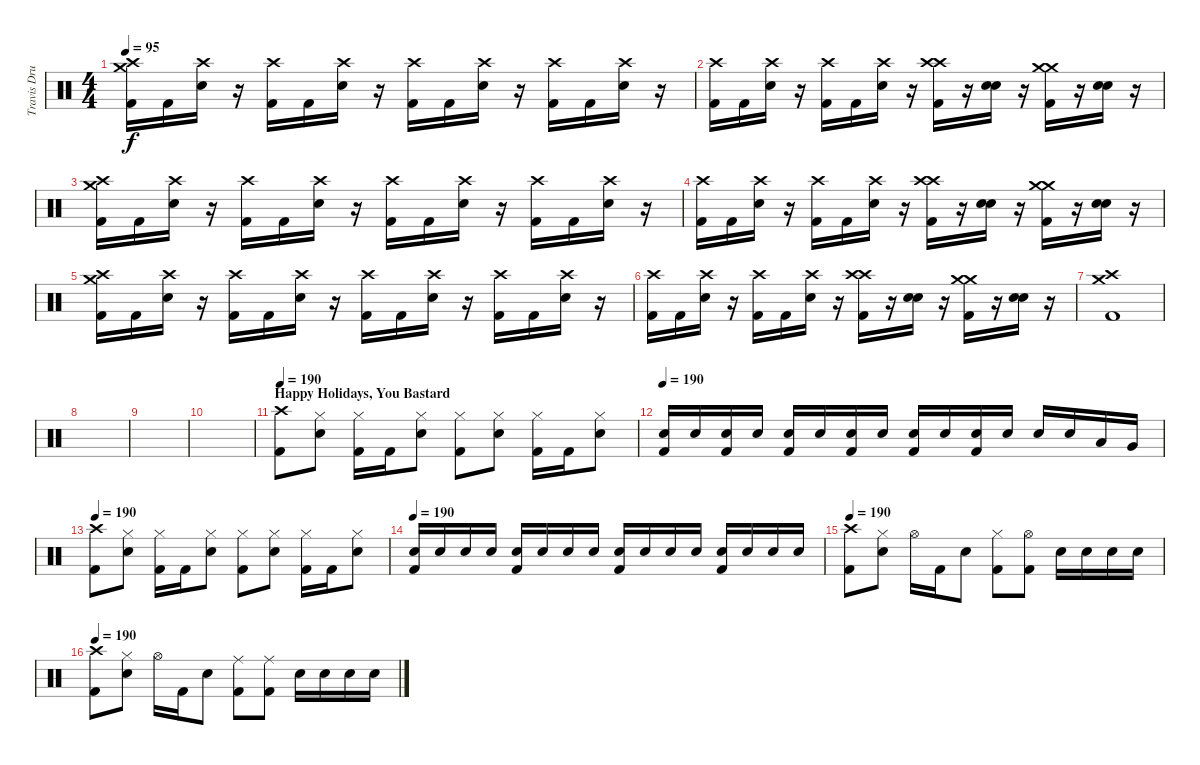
\track ("Travis Drums" "Travis Dru") {instrument percussion}
\staff {score}
\articulation defaults
\ts (4 4)
\tempo 95
\clef neutral
\ks c
("Crash medium (hit)" "Crash high (hit)" "Kick (hit) 2").16{dy f} "Kick (hit) 2".16 ("Crash high (hit)" "Snare (hit) 2").16 r.16 ("Crash high (hit)" "Kick (hit) 2").16 "Kick (hit) 2".16 ("Crash high (hit)" "Snare (hit) 2").16 r.16 ("Crash high (hit)" "Kick (hit) 2").16 "Kick (hit) 2".16 ("Crash high (hit)" "Snare (hit) 2").16 r.16 ("Crash high (hit)" "Kick (hit) 2").16 "Kick (hit) 2".16 ("Crash high (hit)" "Snare (hit) 2").16 r.16 |
("Crash high (hit)" "Kick (hit) 2").16 "Kick (hit) 2".16 ("Crash high (hit)" "Snare (hit) 2").16 r.16 ("Crash high (hit)" "Kick (hit) 2").16 "Kick (hit) 2".16 ("Crash high (hit)" "Snare (hit) 2").16 r.16 ("Crash high (hit)" "Crash high (hit)" "Kick (hit) 2").16 r.16 ("Snare (hit) 2" "Snare (hit) 2").16 r.16 ("Crash medium (hit)" "Crash medium (hit)" "Kick (hit) 2").16 r.16 ("Snare (hit) 2" "Snare (hit) 2").16 r.16 |
("Crash medium (hit)" "Crash high (hit)" "Kick (hit) 2").16 "Kick (hit) 2".16 ("Crash high (hit)" "Snare (hit) 2").16 r.16 ("Crash high (hit)" "Kick (hit) 2").16 "Kick (hit) 2".16 ("Crash high (hit)" "Snare (hit) 2").16 r.16 ("Crash high (hit)" "Kick (hit) 2").16 "Kick (hit) 2".16 ("Crash high (hit)" "Snare (hit) 2").16 r.16 ("Crash high (hit)" "Kick (hit) 2").16 "Kick (hit) 2".16 ("Crash high (hit)" "Snare (hit) 2").16 r.16 |
("Crash high (hit)" "Kick (hit) 2").16 "Kick (hit) 2".16 ("Crash high (hit)" "Snare (hit) 2").16 r.16 ("Crash high (hit)" "Kick (hit) 2").16 "Kick (hit) 2".16 ("Crash high (hit)" "Snare (hit) 2").16 r.16 ("Crash high (hit)" "Crash high (hit)" "Kick (hit) 2").16 r.16 ("Snare (hit) 2" "Snare (hit) 2").16 r.16 ("Crash medium (hit)" "Crash medium (hit)" "Kick (hit) 2").16 r.16 ("Snare (hit) 2" "Snare (hit) 2").16 r.16 |
("Crash medium (hit)" "Crash high (hit)" "Kick (hit) 2").16 "Kick (hit) 2".16 ("Crash high (hit)" "Snare (hit) 2").16 r.16 ("Crash high (hit)" "Kick (hit) 2").16 "Kick (hit) 2".16 ("Crash high (hit)" "Snare (hit) 2").16 r.16 ("Crash high (hit)" "Kick (hit) 2").16 "Kick (hit) 2".16 ("Crash high (hit)" "Snare (hit) 2").16 r.16 ("Crash high (hit)" "Kick (hit) 2").16 "Kick (hit) 2".16 ("Crash high (hit)" "Snare (hit) 2").16 r.16 |
("Crash high (hit)" "Kick (hit) 2").16 "Kick (hit) 2".16 ("Crash high (hit)" "Snare (hit) 2").16 r.16 ("Crash high (hit)" "Kick (hit) 2").16 "Kick (hit) 2".16 ("Crash high (hit)" "Snare (hit) 2").16 r.16 ("Crash high (hit)" "Crash high (hit)" "Kick (hit) 2").16 r.16 ("Snare (hit) 2" "Snare (hit) 2").16 r.16 ("Crash medium (hit)" "Crash medium (hit)" "Kick (hit) 2").16 r.16 ("Snare (hit) 2" "Snare (hit) 2").16 r.16 |
("Crash medium (hit)" "Crash high (hit)" "Kick (hit) 2").1 |
|
|
|
\section ("" "Happy Holidays, You Bastard")
\tempo 190
("Crash high (hit)" "Kick (hit) 2").8 ("Hi-Hat (closed)" "Electric Snare (hit)").8 ("Hi-Hat (closed)" "Kick (hit) 2").16 "Kick (hit) 2".16 ("Hi-Hat (closed)" "Electric Snare (hit)").8 ("Hi-Hat (closed)" "Kick (hit) 2").8 ("Hi-Hat (closed)" "Electric Snare (hit)").8 ("Hi-Hat (closed)" "Kick (hit) 2").16 "Kick (hit) 2".16 ("Hi-Hat (closed)" "Electric Snare (hit)").8 |
\tempo 190
("Electric Snare (hit)" "Kick (hit) 2").16 "Electric Snare (hit)".16 ("Electric Snare (hit)" "Kick (hit) 2").16 "Electric Snare (hit)".16 ("Electric Snare (hit)" "Kick (hit) 2").16 "Electric Snare (hit)".16 ("Electric Snare (hit)" "Kick (hit) 2").16 "Electric Snare (hit)".16 ("Electric Snare (hit)" "Kick (hit) 2").16 "Electric Snare (hit)".16 ("Electric Snare (hit)" "Kick (hit) 2").16 "Electric Snare (hit)".16 "Electric Snare (hit)".16 "Electric Snare (hit)".16 "Low Tom (hit)".16 "Very Low Tom (hit)".16 |
\tempo 190
("Crash high (hit)" "Kick (hit) 2").8 ("Hi-Hat (closed)" "Electric Snare (hit)").8 ("Hi-Hat (closed)" "Kick (hit) 2").16 "Kick (hit) 2".16 ("Hi-Hat (closed)" "Electric Snare (hit)").8 ("Hi-Hat (closed)" "Kick (hit) 2").8 ("Hi-Hat (closed)" "Electric Snare (hit)").8 ("Hi-Hat (closed)" "Kick (hit) 2").16 "Kick (hit) 2".16 ("Hi-Hat (closed)" "Electric Snare (hit)").8 |
\tempo 190
("Electric Snare (hit)" "Kick (hit) 2").16 "Electric Snare (hit)".16 "Electric Snare (hit)".16 "Electric Snare (hit)".16 ("Electric Snare (hit)" "Kick (hit) 2").16 "Electric Snare (hit)".16 "Electric Snare (hit)".16 "Electric Snare (hit)".16 ("Electric Snare (hit)" "Kick (hit) 2").16 "Electric Snare (hit)".16 "Electric Snare (hit)".16 "Electric Snare (hit)".16 ("Electric Snare (hit)" "Kick (hit) 2").16 "Electric Snare (hit)".16 "Electric Snare (hit)".16 "Electric Snare (hit)".16 |
\tempo 190
("Crash high (hit)" "Kick (hit) 2").8 ("Hi-Hat (closed)" "Electric Snare (hit)").8 "Hi-Hat (open)".16 "Kick (hit) 2".16 "Electric Snare (hit)".8 ("Hi-Hat (closed)" "Kick (hit) 2").8 ("Hi-Hat (open)" "Kick (hit) 2").8 "Electric Snare (hit)".16 "Electric Snare (hit)".16 "Electric Snare (hit)".16 "Electric Snare (hit)".16 |
\tempo 190
("Crash high (hit)" "Kick (hit) 2").8 ("Hi-Hat (closed)" "Electric Snare (hit)").8 "Hi-Hat (open)".16 "Kick (hit) 2".16 "Electric Snare (hit)".8 ("Ride (middle)" "Kick (hit) 2").8 ("Ride (middle)" "Kick (hit) 2").8 "Electric Snare (hit)".16 "Electric Snare (hit)".16 "Electric Snare (hit)".16 "Electric Snare (hit)".16
